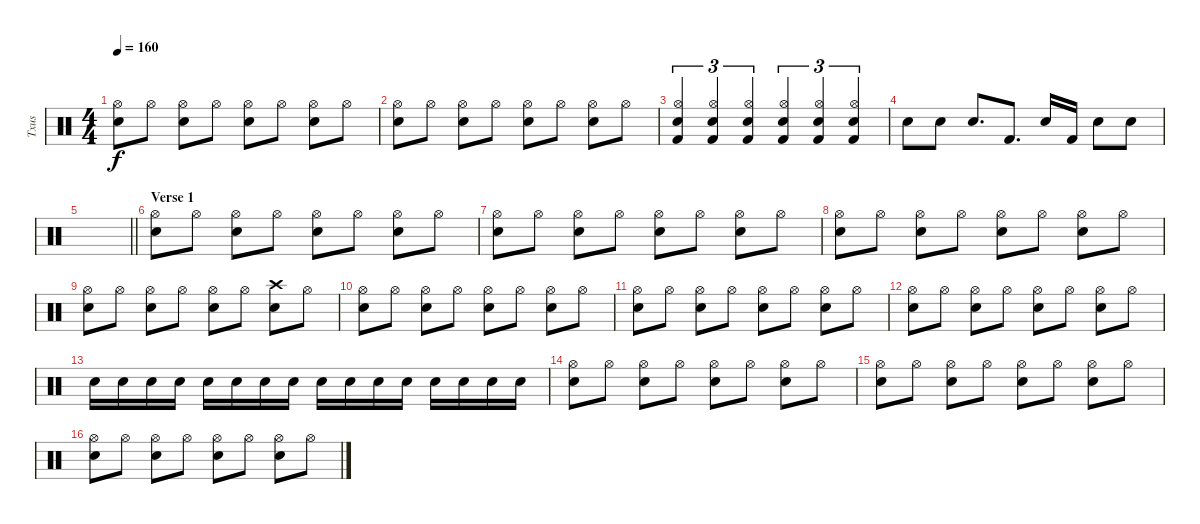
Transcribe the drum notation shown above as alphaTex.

\track ("Txus" "Txus") {instrument percussion}
\staff {score}
\articulation defaults
\ts (4 4)
\tempo 160
\clef neutral
\ks c
("Snare (hit) 2" "Hi-Hat (open)").8{dy f} "Hi-Hat (open)".8 ("Snare (hit) 2" "Hi-Hat (open)").8 "Hi-Hat (open)".8 ("Snare (hit) 2" "Hi-Hat (open)").8 "Hi-Hat (open)".8 ("Snare (hit) 2" "Hi-Hat (open)").8 "Hi-Hat (open)".8 |
("Snare (hit) 2" "Hi-Hat (open)").8 "Hi-Hat (open)".8 ("Snare (hit) 2" "Hi-Hat (open)").8 "Hi-Hat (open)".8 ("Snare (hit) 2" "Hi-Hat (open)").8 "Hi-Hat (open)".8 ("Snare (hit) 2" "Hi-Hat (open)").8 "Hi-Hat (open)".8 |
("Snare (hit) 2" "Hi-Hat (open)" "Kick (hit) 2").4{tu (3 2)} ("Snare (hit) 2" "Hi-Hat (open)" "Kick (hit) 2").4{tu (3 2)} ("Snare (hit) 2" "Hi-Hat (open)" "Kick (hit) 2").4{tu (3 2)} ("Snare (hit) 2" "Hi-Hat (open)" "Kick (hit) 2").4{tu (3 2)} ("Snare (hit) 2" "Hi-Hat (open)" "Kick (hit) 2").4{tu (3 2)} ("Snare (hit) 2" "Hi-Hat (open)" "Kick (hit) 2").4{tu (3 2)} |
"Snare (hit) 2".8 "Snare (hit) 2".8 "Snare (hit) 2".8{d} "Kick (hit) 2".8{d} "Snare (hit) 2".16 "Kick (hit) 2".16 "Snare (hit) 2".8 "Snare (hit) 2".8 |
\barLineRight lightlight
|
\section ("" "Verse 1")
("Snare (hit) 2" "Hi-Hat (open)").8 "Hi-Hat (open)".8 ("Snare (hit) 2" "Hi-Hat (open)").8 "Hi-Hat (open)".8 ("Snare (hit) 2" "Hi-Hat (open)").8 "Hi-Hat (open)".8 ("Snare (hit) 2" "Hi-Hat (open)").8 "Hi-Hat (open)".8 |
("Snare (hit) 2" "Hi-Hat (open)").8 "Hi-Hat (open)".8 ("Snare (hit) 2" "Hi-Hat (open)").8 "Hi-Hat (open)".8 ("Snare (hit) 2" "Hi-Hat (open)").8 "Hi-Hat (open)".8 ("Snare (hit) 2" "Hi-Hat (open)").8 "Hi-Hat (open)".8 |
("Snare (hit) 2" "Hi-Hat (open)").8 "Hi-Hat (open)".8 ("Snare (hit) 2" "Hi-Hat (open)").8 "Hi-Hat (open)".8 ("Snare (hit) 2" "Hi-Hat (open)").8 "Hi-Hat (open)".8 ("Snare (hit) 2" "Hi-Hat (open)").8 "Hi-Hat (open)".8 |
("Snare (hit) 2" "Hi-Hat (open)").8 "Hi-Hat (open)".8 ("Snare (hit) 2" "Hi-Hat (open)").8 "Hi-Hat (open)".8 ("Snare (hit) 2" "Hi-Hat (open)").8 "Hi-Hat (open)".8 ("Snare (hit) 2" "Crash high (hit)").8 "Hi-Hat (open)".8 |
("Snare (hit) 2" "Hi-Hat (open)").8 "Hi-Hat (open)".8 ("Snare (hit) 2" "Hi-Hat (open)").8 "Hi-Hat (open)".8 ("Snare (hit) 2" "Hi-Hat (open)").8 "Hi-Hat (open)".8 ("Snare (hit) 2" "Hi-Hat (open)").8 "Hi-Hat (open)".8 |
("Snare (hit) 2" "Hi-Hat (open)").8 "Hi-Hat (open)".8 ("Snare (hit) 2" "Hi-Hat (open)").8 "Hi-Hat (open)".8 ("Snare (hit) 2" "Hi-Hat (open)").8 "Hi-Hat (open)".8 ("Snare (hit) 2" "Hi-Hat (open)").8 "Hi-Hat (open)".8 |
("Snare (hit) 2" "Hi-Hat (open)").8 "Hi-Hat (open)".8 ("Snare (hit) 2" "Hi-Hat (open)").8 "Hi-Hat (open)".8 ("Snare (hit) 2" "Hi-Hat (open)").8 "Hi-Hat (open)".8 ("Snare (hit) 2" "Hi-Hat (open)").8 "Hi-Hat (open)".8 |
"Snare (hit) 2".16 "Snare (hit) 2".16 "Snare (hit) 2".16 "Snare (hit) 2".16 "Snare (hit) 2".16 "Snare (hit) 2".16 "Snare (hit) 2".16 "Snare (hit) 2".16 "Snare (hit) 2".16 "Snare (hit) 2".16 "Snare (hit) 2".16 "Snare (hit) 2".16 "Snare (hit) 2".16 "Snare (hit) 2".16 "Snare (hit) 2".16 "Snare (hit) 2".16 |
("Snare (hit) 2" "Hi-Hat (open)").8 "Hi-Hat (open)".8 ("Snare (hit) 2" "Hi-Hat (open)").8 "Hi-Hat (open)".8 ("Snare (hit) 2" "Hi-Hat (open)").8 "Hi-Hat (open)".8 ("Snare (hit) 2" "Hi-Hat (open)").8 "Hi-Hat (open)".8 |
("Snare (hit) 2" "Hi-Hat (open)").8 "Hi-Hat (open)".8 ("Snare (hit) 2" "Hi-Hat (open)").8 "Hi-Hat (open)".8 ("Snare (hit) 2" "Hi-Hat (open)").8 "Hi-Hat (open)".8 ("Snare (hit) 2" "Hi-Hat (open)").8 "Hi-Hat (open)".8 |
("Snare (hit) 2" "Hi-Hat (open)").8 "Hi-Hat (open)".8 ("Snare (hit) 2" "Hi-Hat (open)").8 "Hi-Hat (open)".8 ("Snare (hit) 2" "Hi-Hat (open)").8 "Hi-Hat (open)".8 ("Snare (hit) 2" "Hi-Hat (open)").8 "Hi-Hat (open)".8
